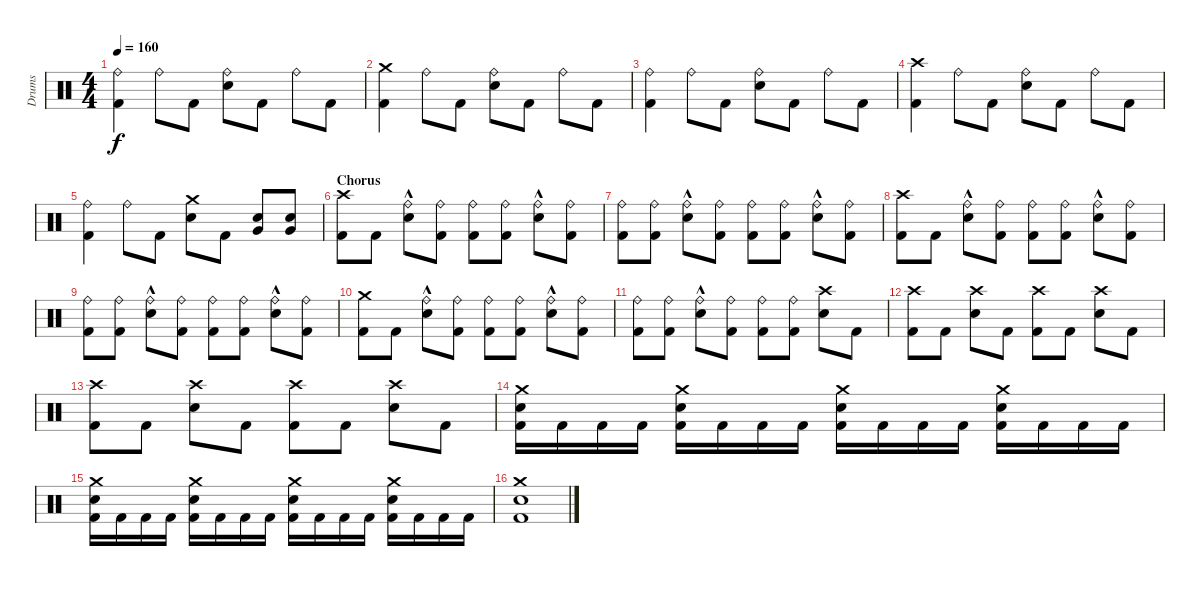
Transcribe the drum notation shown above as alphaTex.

\track ("Drums" "Drums") {instrument percussion}
\staff {score}
\articulation defaults
\ts (4 4)
\tempo 160
\clef neutral
\ks c
("Ride (bell)" "Kick (hit) 2").4{dy f} "Ride (bell)".8 "Kick (hit) 2".8 ("Ride (bell)" "Snare (hit) 2").8 "Kick (hit) 2".8 "Ride (bell)".8 "Kick (hit) 2".8 |
("Crash medium (hit)" "Kick (hit) 2").4 "Ride (bell)".8 "Kick (hit) 2".8 ("Ride (bell)" "Snare (hit) 2").8 "Kick (hit) 2".8 "Ride (bell)".8 "Kick (hit) 2".8 |
("Ride (bell)" "Kick (hit) 2").4 "Ride (bell)".8 "Kick (hit) 2".8 ("Ride (bell)" "Snare (hit) 2").8 "Kick (hit) 2".8 "Ride (bell)".8 "Kick (hit) 2".8 |
("Crash high (hit)" "Kick (hit) 2").4 "Ride (bell)".8 "Kick (hit) 2".8 ("Ride (bell)" "Snare (hit) 2").8 "Kick (hit) 2".8 "Ride (bell)".8 "Kick (hit) 2".8 |
("Ride (bell)" "Kick (hit) 2").4 "Ride (bell)".8 "Kick (hit) 2".8 ("Crash medium (hit)" "Snare (hit) 2").8 "Kick (hit) 2".8 ("Very Low Tom (hit)" "Snare (hit) 2").8 ("Very Low Tom (hit)" "Snare (hit) 2").8 |
\section ("" "Chorus")
("Crash high (hit)" "Kick (hit) 2").8 "Kick (hit) 2".8 ("Ride (bell)"{hac} "Snare (hit) 2").8 ("Ride (bell)" "Kick (hit) 2").8 ("Ride (bell)" "Kick (hit) 2").8 ("Ride (bell)" "Kick (hit) 2").8 ("Ride (bell)"{hac} "Snare (hit) 2").8 ("Ride (bell)" "Kick (hit) 2").8 |
("Ride (bell)" "Kick (hit) 2").8 ("Ride (bell)" "Kick (hit) 2").8 ("Ride (bell)"{hac} "Snare (hit) 2").8 ("Ride (bell)" "Kick (hit) 2").8 ("Ride (bell)" "Kick (hit) 2").8 ("Ride (bell)" "Kick (hit) 2").8 ("Ride (bell)"{hac} "Snare (hit) 2").8 ("Ride (bell)" "Kick (hit) 2").8 |
("Crash high (hit)" "Kick (hit) 2").8 "Kick (hit) 2".8 ("Ride (bell)"{hac} "Snare (hit) 2").8 ("Ride (bell)" "Kick (hit) 2").8 ("Ride (bell)" "Kick (hit) 2").8 ("Ride (bell)" "Kick (hit) 2").8 ("Ride (bell)"{hac} "Snare (hit) 2").8 ("Ride (bell)" "Kick (hit) 2").8 |
("Ride (bell)" "Kick (hit) 2").8 ("Ride (bell)" "Kick (hit) 2").8 ("Ride (bell)"{hac} "Snare (hit) 2").8 ("Ride (bell)" "Kick (hit) 2").8 ("Ride (bell)" "Kick (hit) 2").8 ("Ride (bell)" "Kick (hit) 2").8 ("Ride (bell)"{hac} "Snare (hit) 2").8 ("Ride (bell)" "Kick (hit) 2").8 |
("Crash medium (hit)" "Kick (hit) 2").8 "Kick (hit) 2".8 ("Ride (bell)"{hac} "Snare (hit) 2").8 ("Ride (bell)" "Kick (hit) 2").8 ("Ride (bell)" "Kick (hit) 2").8 ("Ride (bell)" "Kick (hit) 2").8 ("Ride (bell)"{hac} "Snare (hit) 2").8 ("Ride (bell)" "Kick (hit) 2").8 |
("Ride (bell)" "Kick (hit) 2").8 ("Ride (bell)" "Kick (hit) 2").8 ("Ride (bell)"{hac} "Snare (hit) 2").8 ("Ride (bell)" "Kick (hit) 2").8 ("Ride (bell)" "Kick (hit) 2").8 ("Ride (bell)" "Kick (hit) 2").8 ("Crash high (hit)" "Snare (hit) 2").8 "Kick (hit) 2".8 |
("Crash high (hit)" "Kick (hit) 2").8 "Kick (hit) 2".8 ("Crash high (hit)" "Snare (hit) 2").8 "Kick (hit) 2".8 ("Crash high (hit)" "Kick (hit) 2").8 "Kick (hit) 2".8 ("Crash high (hit)" "Snare (hit) 2").8 "Kick (hit) 2".8 |
("Crash high (hit)" "Kick (hit) 2").8 "Kick (hit) 2".8 ("Crash high (hit)" "Snare (hit) 2").8 "Kick (hit) 2".8 ("Crash high (hit)" "Kick (hit) 2").8 "Kick (hit) 2".8 ("Crash high (hit)" "Snare (hit) 2").8 "Kick (hit) 2".8 |
("Crash medium (hit)" "Snare (hit) 2" "Kick (hit) 2").16 "Kick (hit) 2".16 "Kick (hit) 2".16 "Kick (hit) 2".16 ("Crash medium (hit)" "Snare (hit) 2" "Kick (hit) 2").16 "Kick (hit) 2".16 "Kick (hit) 2".16 "Kick (hit) 2".16 ("Crash medium (hit)" "Snare (hit) 2" "Kick (hit) 2").16 "Kick (hit) 2".16 "Kick (hit) 2".16 "Kick (hit) 2".16 ("Crash medium (hit)" "Snare (hit) 2" "Kick (hit) 2").16 "Kick (hit) 2".16 "Kick (hit) 2".16 "Kick (hit) 2".16 |
("Crash medium (hit)" "Snare (hit) 2" "Kick (hit) 2").16 "Kick (hit) 2".16 "Kick (hit) 2".16 "Kick (hit) 2".16 ("Crash medium (hit)" "Snare (hit) 2" "Kick (hit) 2").16 "Kick (hit) 2".16 "Kick (hit) 2".16 "Kick (hit) 2".16 ("Crash medium (hit)" "Snare (hit) 2" "Kick (hit) 2").16 "Kick (hit) 2".16 "Kick (hit) 2".16 "Kick (hit) 2".16 ("Crash medium (hit)" "Snare (hit) 2" "Kick (hit) 2").16 "Kick (hit) 2".16 "Kick (hit) 2".16 "Kick (hit) 2".16 |
("Snare (hit) 2" "Crash medium (hit)" "Kick (hit) 2").1
